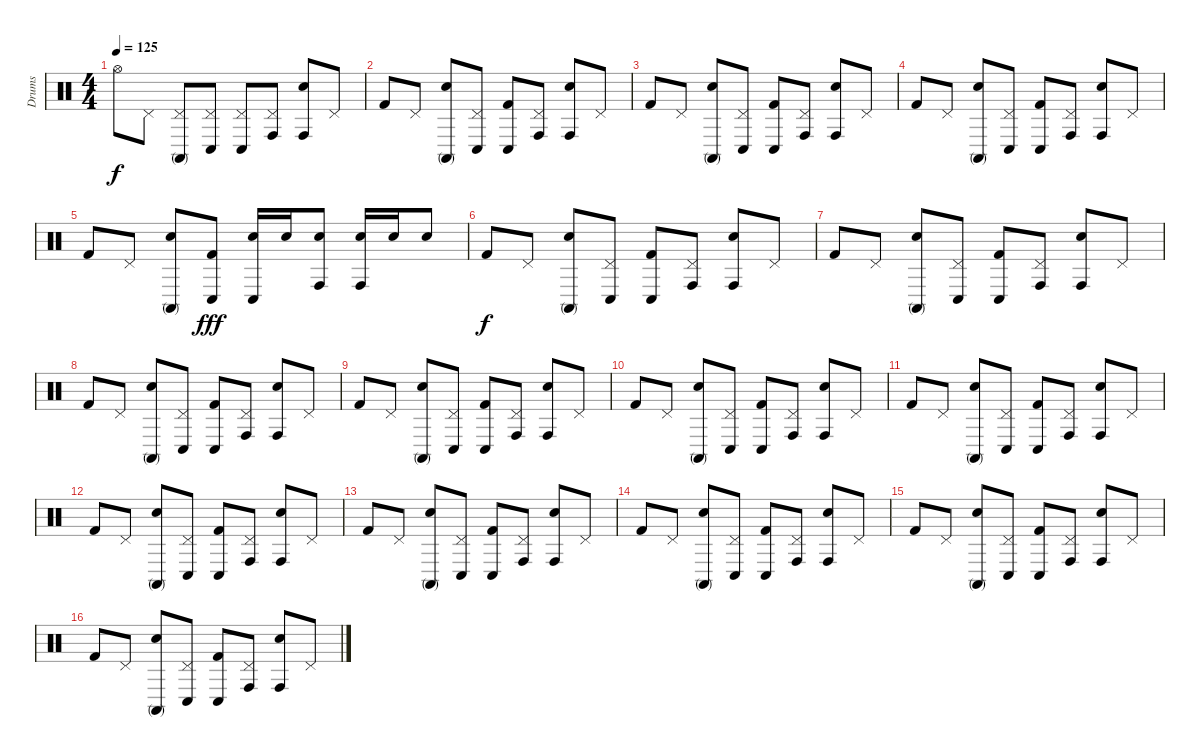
\track ("Drums" "Drums") {instrument percussion}
\staff {score}
\articulation defaults
\ts (4 4)
\tempo 125
\clef neutral
\ks c "Hi-Hat (open)".8{dy f} "Pedal Hi-Hat (hit)".8
("Pedal Hi-Hat (hit)" "Conga high (mute)").8 ("Pedal Hi-Hat (hit)" "Conga low (hit)").8 ("Pedal Hi-Hat (hit)" "Conga low (hit)").8 ("Pedal Hi-Hat (hit)" "Conga high (hit)").8 ("Snare (hit) 2" "Conga high (hit)").8 "Pedal Hi-Hat (hit)".8 |
"Kick (hit) 2".8 "Pedal Hi-Hat (hit)".8 ("Snare (hit) 2" "Conga high (mute)").8 ("Pedal Hi-Hat (hit)" "Conga low (hit)").8 ("Kick (hit) 2" "Conga low (hit)").8 ("Pedal Hi-Hat (hit)" "Conga high (hit)").8 ("Snare (hit) 2" "Conga high (hit)").8 "Pedal Hi-Hat (hit)".8 |
"Kick (hit) 2".8 "Pedal Hi-Hat (hit)".8 ("Snare (hit) 2" "Conga high (mute)").8 ("Pedal Hi-Hat (hit)" "Conga low (hit)").8 ("Kick (hit) 2" "Conga low (hit)").8 ("Pedal Hi-Hat (hit)" "Conga high (hit)").8 ("Snare (hit) 2" "Conga high (hit)").8 "Pedal Hi-Hat (hit)".8 |
"Kick (hit) 2".8 "Pedal Hi-Hat (hit)".8 ("Snare (hit) 2" "Conga high (mute)").8 ("Pedal Hi-Hat (hit)" "Conga low (hit)").8 ("Kick (hit) 2" "Conga low (hit)").8 ("Pedal Hi-Hat (hit)" "Conga high (hit)").8 ("Snare (hit) 2" "Conga high (hit)").8 "Pedal Hi-Hat (hit)".8 |
"Kick (hit) 2".8 "Pedal Hi-Hat (hit)".8 ("Snare (hit) 2" "Conga high (mute)").8 ("Kick (hit) 2" "Conga low (hit)").8{dy fff} ("Electric Snare (hit)" "Conga low (hit)").16 "Electric Snare (hit)".16 ("Electric Snare (hit)" "Conga high (hit)").8 ("Electric Snare (hit)" "Conga high (hit)").16 "Electric Snare (hit)".16 "Electric Snare (hit)".8 |
"Kick (hit) 2".8{dy f} "Pedal Hi-Hat (hit)".8 ("Snare (hit) 2" "Conga high (mute)").8 ("Pedal Hi-Hat (hit)" "Conga low (hit)").8 ("Kick (hit) 2" "Conga low (hit)").8 ("Pedal Hi-Hat (hit)" "Conga high (hit)").8 ("Snare (hit) 2" "Conga high (hit)").8 "Pedal Hi-Hat (hit)".8 |
"Kick (hit) 2".8 "Pedal Hi-Hat (hit)".8 ("Snare (hit) 2" "Conga high (mute)").8 ("Pedal Hi-Hat (hit)" "Conga low (hit)").8 ("Kick (hit) 2" "Conga low (hit)").8 ("Pedal Hi-Hat (hit)" "Conga high (hit)").8 ("Snare (hit) 2" "Conga high (hit)").8 "Pedal Hi-Hat (hit)".8 |
"Kick (hit) 2".8 "Pedal Hi-Hat (hit)".8 ("Snare (hit) 2" "Conga high (mute)").8 ("Pedal Hi-Hat (hit)" "Conga low (hit)").8 ("Kick (hit) 2" "Conga low (hit)").8 ("Pedal Hi-Hat (hit)" "Conga high (hit)").8 ("Snare (hit) 2" "Conga high (hit)").8 "Pedal Hi-Hat (hit)".8 |
"Kick (hit) 2".8 "Pedal Hi-Hat (hit)".8 ("Snare (hit) 2" "Conga high (mute)").8 ("Pedal Hi-Hat (hit)" "Conga low (hit)").8 ("Kick (hit) 2" "Conga low (hit)").8 ("Pedal Hi-Hat (hit)" "Conga high (hit)").8 ("Snare (hit) 2" "Conga high (hit)").8 "Pedal Hi-Hat (hit)".8 |
"Kick (hit) 2".8 "Pedal Hi-Hat (hit)".8 ("Snare (hit) 2" "Conga high (mute)").8 ("Pedal Hi-Hat (hit)" "Conga low (hit)").8 ("Kick (hit) 2" "Conga low (hit)").8 ("Pedal Hi-Hat (hit)" "Conga high (hit)").8 ("Snare (hit) 2" "Conga high (hit)").8 "Pedal Hi-Hat (hit)".8 |
"Kick (hit) 2".8 "Pedal Hi-Hat (hit)".8 ("Snare (hit) 2" "Conga high (mute)").8 ("Pedal Hi-Hat (hit)" "Conga low (hit)").8 ("Kick (hit) 2" "Conga low (hit)").8 ("Pedal Hi-Hat (hit)" "Conga high (hit)").8 ("Snare (hit) 2" "Conga high (hit)").8 "Pedal Hi-Hat (hit)".8 |
"Kick (hit) 2".8 "Pedal Hi-Hat (hit)".8 ("Snare (hit) 2" "Conga high (mute)").8 ("Pedal Hi-Hat (hit)" "Conga low (hit)").8 ("Kick (hit) 2" "Conga low (hit)").8 ("Pedal Hi-Hat (hit)" "Conga high (hit)").8 ("Snare (hit) 2" "Conga high (hit)").8 "Pedal Hi-Hat (hit)".8 |
"Kick (hit) 2".8 "Pedal Hi-Hat (hit)".8 ("Snare (hit) 2" "Conga high (mute)").8 ("Pedal Hi-Hat (hit)" "Conga low (hit)").8 ("Kick (hit) 2" "Conga low (hit)").8 ("Pedal Hi-Hat (hit)" "Conga high (hit)").8 ("Snare (hit) 2" "Conga high (hit)").8 "Pedal Hi-Hat (hit)".8 |
"Kick (hit) 2".8 "Pedal Hi-Hat (hit)".8 ("Snare (hit) 2" "Conga high (mute)").8 ("Pedal Hi-Hat (hit)" "Conga low (hit)").8 ("Kick (hit) 2" "Conga low (hit)").8 ("Pedal Hi-Hat (hit)" "Conga high (hit)").8 ("Snare (hit) 2" "Conga high (hit)").8 "Pedal Hi-Hat (hit)".8 |
"Kick (hit) 2".8 "Pedal Hi-Hat (hit)".8 ("Snare (hit) 2" "Conga high (mute)").8 ("Pedal Hi-Hat (hit)" "Conga low (hit)").8 ("Kick (hit) 2" "Conga low (hit)").8 ("Pedal Hi-Hat (hit)" "Conga high (hit)").8 ("Snare (hit) 2" "Conga high (hit)").8 "Pedal Hi-Hat (hit)".8 |
"Kick (hit) 2".8 "Pedal Hi-Hat (hit)".8 ("Snare (hit) 2" "Conga high (mute)").8 ("Pedal Hi-Hat (hit)" "Conga low (hit)").8 ("Kick (hit) 2" "Conga low (hit)").8 ("Pedal Hi-Hat (hit)" "Conga high (hit)").8 ("Snare (hit) 2" "Conga high (hit)").8 "Pedal Hi-Hat (hit)".8
